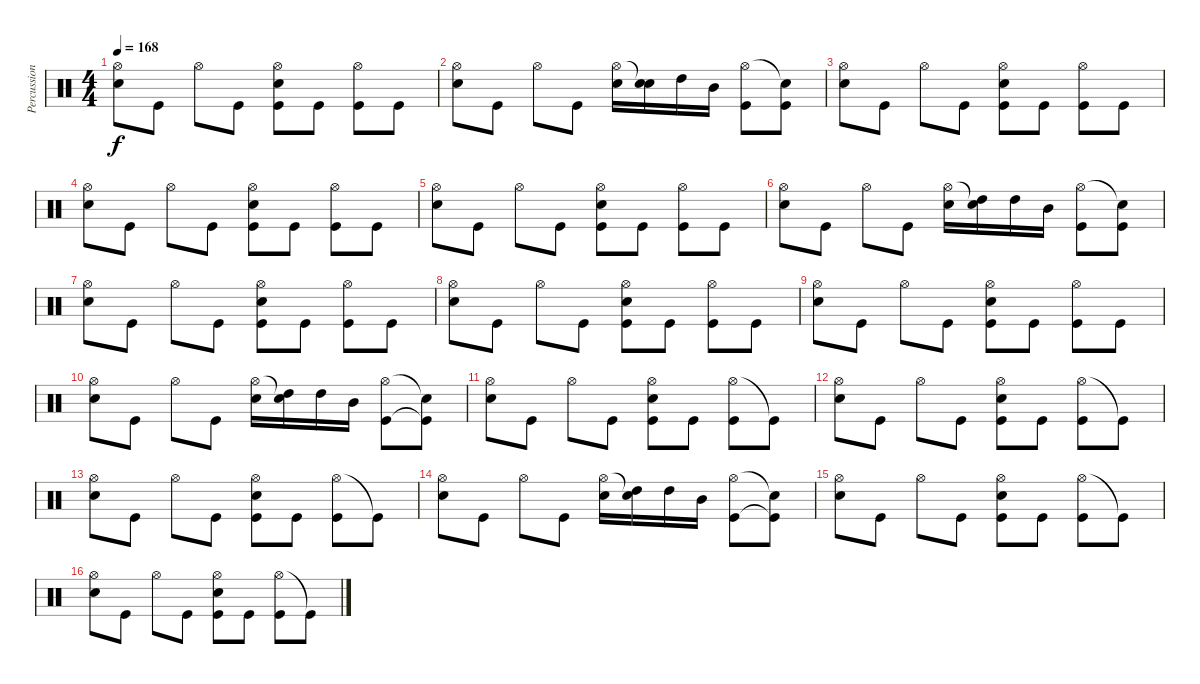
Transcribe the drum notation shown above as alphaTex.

\track ("Percussions" "Percussion") {instrument percussion}
\staff {score}
\articulation defaults
\ts (4 4)
\tempo 168
\clef neutral
\ks c
("Hi-Hat (open)" "Snare (hit) 2").8{dy f} "Kick (hit)".8 "Hi-Hat (open)".8 "Kick (hit)".8 ("Hi-Hat (open)" "Kick (hit)" "Snare (hit) 2").8 "Kick (hit)".8 ("Hi-Hat (open)" "Kick (hit)").8 "Kick (hit)".8 |
("Hi-Hat (open)" "Snare (hit) 2").8 "Kick (hit)".8 "Hi-Hat (open)".8 "Kick (hit)".8 ("Hi-Hat (open)" "Snare (hit) 2").16 ("Snare (hit)"{t} "Snare (hit) 2").16 "High Tom (hit)".16 "Mid Tom (hit)".16 ("Hi-Hat (open)" "Kick (hit)").8 ("Snare (hit)"{t} "Kick (hit)").8 |
("Hi-Hat (open)" "Snare (hit) 2").8 "Kick (hit)".8 "Hi-Hat (open)".8 "Kick (hit)".8 ("Hi-Hat (open)" "Kick (hit)" "Snare (hit) 2").8 "Kick (hit)".8 ("Hi-Hat (open)" "Kick (hit)").8 "Kick (hit)".8 |
("Hi-Hat (open)" "Snare (hit) 2").8 "Kick (hit)".8 "Hi-Hat (open)".8 "Kick (hit)".8 ("Hi-Hat (open)" "Kick (hit)" "Snare (hit) 2").8 "Kick (hit)".8 ("Hi-Hat (open)" "Kick (hit)").8 "Kick (hit)".8 |
("Hi-Hat (open)" "Snare (hit) 2").8 "Kick (hit)".8 "Hi-Hat (open)".8 "Kick (hit)".8 ("Hi-Hat (open)" "Kick (hit)" "Snare (hit) 2").8 "Kick (hit)".8 ("Hi-Hat (open)" "Kick (hit)").8 "Kick (hit)".8 |
("Hi-Hat (open)" "Snare (hit) 2").8 "Kick (hit)".8 "Hi-Hat (open)".8 "Kick (hit)".8 ("Hi-Hat (open)" "Snare (hit) 2").16 ("Snare (hit)"{t} "High Tom (hit)").16 "High Tom (hit)".16 "Mid Tom (hit)".16 ("Hi-Hat (open)" "Kick (hit)").8 ("Snare (hit)"{t} "Kick (hit)").8 |
("Hi-Hat (open)" "Snare (hit) 2").8 "Kick (hit)".8 "Hi-Hat (open)".8 "Kick (hit)".8 ("Hi-Hat (open)" "Kick (hit)" "Snare (hit) 2").8 "Kick (hit)".8 ("Hi-Hat (open)" "Kick (hit)").8 "Kick (hit)".8 |
("Hi-Hat (open)" "Snare (hit) 2").8 "Kick (hit)".8 "Hi-Hat (open)".8 "Kick (hit)".8 ("Hi-Hat (open)" "Kick (hit)" "Snare (hit) 2").8 "Kick (hit)".8 ("Hi-Hat (open)" "Kick (hit)").8 "Kick (hit)".8 |
("Hi-Hat (open)" "Snare (hit) 2").8 "Kick (hit)".8 "Hi-Hat (open)".8 "Kick (hit)".8 ("Hi-Hat (open)" "Kick (hit)" "Snare (hit) 2").8 "Kick (hit)".8 ("Hi-Hat (open)" "Kick (hit)").8 "Kick (hit)".8 |
("Hi-Hat (open)" "Snare (hit) 2").8 "Kick (hit)".8 "Hi-Hat (open)".8 "Kick (hit)".8 ("Hi-Hat (open)" "Snare (hit) 2").16 ("Snare (hit)"{t} "High Tom (hit)").16 "High Tom (hit)".16 "Mid Tom (hit)".16 ("Hi-Hat (open)" "Kick (hit)").8 ("Snare (hit)"{t} "Kick (hit)"{t}).8 |
("Hi-Hat (open)" "Snare (hit) 2").8 "Kick (hit)".8 "Hi-Hat (open)".8 "Kick (hit)".8 ("Hi-Hat (open)" "Kick (hit)" "Snare (hit) 2").8 "Kick (hit)".8 ("Hi-Hat (open)" "Kick (hit)").8 "Kick (hit)"{t}.8 |
("Hi-Hat (open)" "Snare (hit) 2").8 "Kick (hit)".8 "Hi-Hat (open)".8 "Kick (hit)".8 ("Hi-Hat (open)" "Kick (hit)" "Snare (hit) 2").8 "Kick (hit)".8 ("Hi-Hat (open)" "Kick (hit)").8 "Kick (hit)"{t}.8 |
("Hi-Hat (open)" "Snare (hit) 2").8 "Kick (hit)".8 "Hi-Hat (open)".8 "Kick (hit)".8 ("Hi-Hat (open)" "Kick (hit)" "Snare (hit) 2").8 "Kick (hit)".8 ("Hi-Hat (open)" "Kick (hit)").8 "Kick (hit)"{t}.8 |
("Hi-Hat (open)" "Snare (hit) 2").8 "Kick (hit)".8 "Hi-Hat (open)".8 "Kick (hit)".8 ("Hi-Hat (open)" "Snare (hit) 2").16 ("Snare (hit)"{t} "High Tom (hit)").16 "High Tom (hit)".16 "Mid Tom (hit)".16 ("Hi-Hat (open)" "Kick (hit)").8 ("Snare (hit)"{t} "Kick (hit)"{t}).8 |
("Hi-Hat (open)" "Snare (hit) 2").8 "Kick (hit)".8 "Hi-Hat (open)".8 "Kick (hit)".8 ("Hi-Hat (open)" "Kick (hit)" "Snare (hit) 2").8 "Kick (hit)".8 ("Hi-Hat (open)" "Kick (hit)").8 "Kick (hit)"{t}.8 |
("Hi-Hat (open)" "Snare (hit) 2").8 "Kick (hit)".8 "Hi-Hat (open)".8 "Kick (hit)".8 ("Hi-Hat (open)" "Kick (hit)" "Snare (hit) 2").8 "Kick (hit)".8 ("Hi-Hat (open)" "Kick (hit)").8 "Kick (hit)"{t}.8
